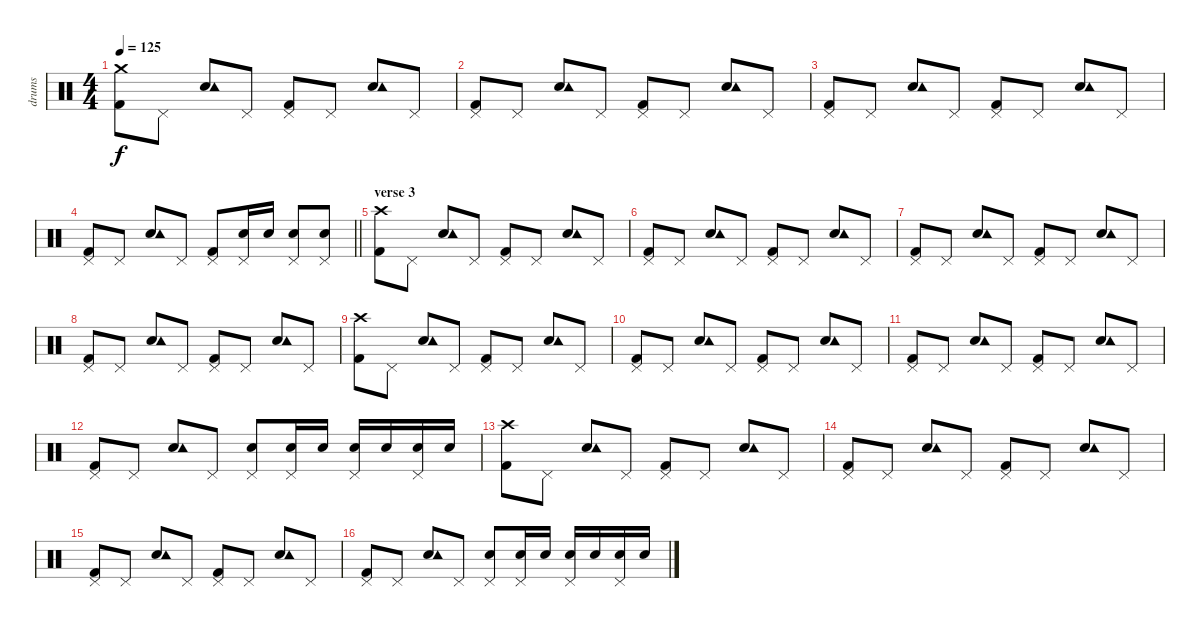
\track ("drums" "drums") {instrument percussion}
\staff {score}
\articulation defaults
\ts (4 4)
\tempo 125
\clef neutral
\ks c
("Kick (hit) 2" "Crash medium (hit)").8{dy f} "Pedal Hi-Hat (hit)".8 ("Electric Snare (hit)" "Tambourine (hit)").8 "Pedal Hi-Hat (hit)".8 ("Kick (hit) 2" "Pedal Hi-Hat (hit)").8 "Pedal Hi-Hat (hit)".8 ("Electric Snare (hit)" "Tambourine (hit)").8 "Pedal Hi-Hat (hit)".8 |
("Kick (hit) 2" "Pedal Hi-Hat (hit)").8 "Pedal Hi-Hat (hit)".8 ("Electric Snare (hit)" "Tambourine (hit)").8 "Pedal Hi-Hat (hit)".8 ("Kick (hit) 2" "Pedal Hi-Hat (hit)").8 "Pedal Hi-Hat (hit)".8 ("Electric Snare (hit)" "Tambourine (hit)").8 "Pedal Hi-Hat (hit)".8 |
("Kick (hit) 2" "Pedal Hi-Hat (hit)").8 "Pedal Hi-Hat (hit)".8 ("Electric Snare (hit)" "Tambourine (hit)").8 "Pedal Hi-Hat (hit)".8 ("Kick (hit) 2" "Pedal Hi-Hat (hit)").8 "Pedal Hi-Hat (hit)".8 ("Electric Snare (hit)" "Tambourine (hit)").8 "Pedal Hi-Hat (hit)".8 |
\barLineRight lightlight
("Kick (hit) 2" "Pedal Hi-Hat (hit)").8 "Pedal Hi-Hat (hit)".8 ("Electric Snare (hit)" "Tambourine (hit)").8 "Pedal Hi-Hat (hit)".8 ("Kick (hit) 2" "Pedal Hi-Hat (hit)").8 ("Electric Snare (hit)" "Pedal Hi-Hat (hit)").16 "Electric Snare (hit)".16 ("Electric Snare (hit)" "Pedal Hi-Hat (hit)").8 ("Electric Snare (hit)" "Pedal Hi-Hat (hit)").8 |
\section ("" "verse 3")
("Kick (hit) 2" "Crash high (hit)").8 "Pedal Hi-Hat (hit)".8 ("Electric Snare (hit)" "Tambourine (hit)").8 "Pedal Hi-Hat (hit)".8 ("Kick (hit) 2" "Pedal Hi-Hat (hit)").8 "Pedal Hi-Hat (hit)".8 ("Electric Snare (hit)" "Tambourine (hit)").8 "Pedal Hi-Hat (hit)".8 |
("Kick (hit) 2" "Pedal Hi-Hat (hit)").8 "Pedal Hi-Hat (hit)".8 ("Electric Snare (hit)" "Tambourine (hit)").8 "Pedal Hi-Hat (hit)".8 ("Kick (hit) 2" "Pedal Hi-Hat (hit)").8 "Pedal Hi-Hat (hit)".8 ("Electric Snare (hit)" "Tambourine (hit)").8 "Pedal Hi-Hat (hit)".8 |
("Kick (hit) 2" "Pedal Hi-Hat (hit)").8 "Pedal Hi-Hat (hit)".8 ("Electric Snare (hit)" "Tambourine (hit)").8 "Pedal Hi-Hat (hit)".8 ("Kick (hit) 2" "Pedal Hi-Hat (hit)").8 "Pedal Hi-Hat (hit)".8 ("Electric Snare (hit)" "Tambourine (hit)").8 "Pedal Hi-Hat (hit)".8 |
("Kick (hit) 2" "Pedal Hi-Hat (hit)").8 "Pedal Hi-Hat (hit)".8 ("Electric Snare (hit)" "Tambourine (hit)").8 "Pedal Hi-Hat (hit)".8 ("Kick (hit) 2" "Pedal Hi-Hat (hit)").8 "Pedal Hi-Hat (hit)".8 ("Electric Snare (hit)" "Tambourine (hit)").8 "Pedal Hi-Hat (hit)".8 |
("Kick (hit) 2" "Crash high (hit)").8 "Pedal Hi-Hat (hit)".8 ("Electric Snare (hit)" "Tambourine (hit)").8 "Pedal Hi-Hat (hit)".8 ("Kick (hit) 2" "Pedal Hi-Hat (hit)").8 "Pedal Hi-Hat (hit)".8 ("Electric Snare (hit)" "Tambourine (hit)").8 "Pedal Hi-Hat (hit)".8 |
("Kick (hit) 2" "Pedal Hi-Hat (hit)").8 "Pedal Hi-Hat (hit)".8 ("Electric Snare (hit)" "Tambourine (hit)").8 "Pedal Hi-Hat (hit)".8 ("Kick (hit) 2" "Pedal Hi-Hat (hit)").8 "Pedal Hi-Hat (hit)".8 ("Electric Snare (hit)" "Tambourine (hit)").8 "Pedal Hi-Hat (hit)".8 |
("Kick (hit) 2" "Pedal Hi-Hat (hit)").8 "Pedal Hi-Hat (hit)".8 ("Electric Snare (hit)" "Tambourine (hit)").8 "Pedal Hi-Hat (hit)".8 ("Kick (hit) 2" "Pedal Hi-Hat (hit)").8 "Pedal Hi-Hat (hit)".8 ("Electric Snare (hit)" "Tambourine (hit)").8 "Pedal Hi-Hat (hit)".8 |
("Kick (hit) 2" "Pedal Hi-Hat (hit)").8 "Pedal Hi-Hat (hit)".8 ("Electric Snare (hit)" "Tambourine (hit)").8 "Pedal Hi-Hat (hit)".8 ("Electric Snare (hit)" "Pedal Hi-Hat (hit)").8 ("Electric Snare (hit)" "Pedal Hi-Hat (hit)").16 "Electric Snare (hit)".16 ("Electric Snare (hit)" "Pedal Hi-Hat (hit)").16 "Electric Snare (hit)".16 ("Electric Snare (hit)" "Pedal Hi-Hat (hit)").16 "Electric Snare (hit)".16 |
("Kick (hit) 2" "Crash high (hit)").8 "Pedal Hi-Hat (hit)".8 ("Electric Snare (hit)" "Tambourine (hit)").8 "Pedal Hi-Hat (hit)".8 ("Kick (hit) 2" "Pedal Hi-Hat (hit)").8 "Pedal Hi-Hat (hit)".8 ("Electric Snare (hit)" "Tambourine (hit)").8 "Pedal Hi-Hat (hit)".8 |
("Kick (hit) 2" "Pedal Hi-Hat (hit)").8 "Pedal Hi-Hat (hit)".8 ("Electric Snare (hit)" "Tambourine (hit)").8 "Pedal Hi-Hat (hit)".8 ("Kick (hit) 2" "Pedal Hi-Hat (hit)").8 "Pedal Hi-Hat (hit)".8 ("Electric Snare (hit)" "Tambourine (hit)").8 "Pedal Hi-Hat (hit)".8 |
("Kick (hit) 2" "Pedal Hi-Hat (hit)").8 "Pedal Hi-Hat (hit)".8 ("Electric Snare (hit)" "Tambourine (hit)").8 "Pedal Hi-Hat (hit)".8 ("Kick (hit) 2" "Pedal Hi-Hat (hit)").8 "Pedal Hi-Hat (hit)".8 ("Electric Snare (hit)" "Tambourine (hit)").8 "Pedal Hi-Hat (hit)".8 |
("Kick (hit) 2" "Pedal Hi-Hat (hit)").8 "Pedal Hi-Hat (hit)".8 ("Electric Snare (hit)" "Tambourine (hit)").8 "Pedal Hi-Hat (hit)".8 ("Electric Snare (hit)" "Pedal Hi-Hat (hit)").8 ("Electric Snare (hit)" "Pedal Hi-Hat (hit)").16 "Electric Snare (hit)".16 ("Electric Snare (hit)" "Pedal Hi-Hat (hit)").16 "Electric Snare (hit)".16 ("Electric Snare (hit)" "Pedal Hi-Hat (hit)").16 "Electric Snare (hit)".16
